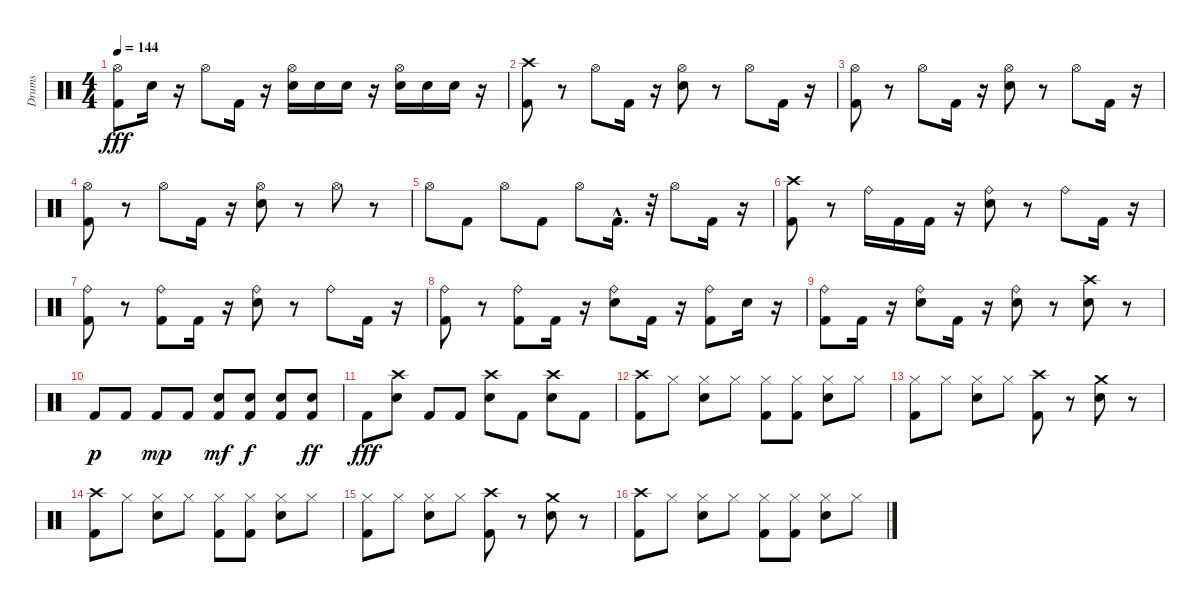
\track ("Drums" "Drums") {instrument percussion}
\staff {score}
\articulation defaults
\ts (4 4)
\tempo 144
\clef neutral
\ks c
("Hi-Hat (open)" "Kick (hit) 2").8{dy fff} "Snare (hit) 2".16 r.16 "Hi-Hat (open)".8 "Kick (hit) 2".16 r.16 ("Hi-Hat (open)" "Snare (hit) 2").16 "Snare (hit) 2".16 "Snare (hit) 2".16 r.16 ("Hi-Hat (open)" "Snare (hit) 2").16 "Snare (hit) 2".16 "Snare (hit) 2".16 r.16 |
("Crash high (hit)" "Kick (hit) 2").8 r.8 "Hi-Hat (open)".8 "Kick (hit) 2".16 r.16 ("Snare (hit) 2" "Hi-Hat (open)").8 r.8 "Hi-Hat (open)".8 "Kick (hit) 2".16 r.16 |
("Kick (hit) 2" "Hi-Hat (open)").8 r.8 "Hi-Hat (open)".8 "Kick (hit) 2".16 r.16 ("Snare (hit) 2" "Hi-Hat (open)").8 r.8 "Hi-Hat (open)".8 "Kick (hit) 2".16 r.16 |
("Kick (hit) 2" "Hi-Hat (open)").8 r.8 "Hi-Hat (open)".8 "Kick (hit) 2".16 r.16 ("Snare (hit) 2" "Hi-Hat (open)").8 r.8 "Hi-Hat (open)".8 r.8 |
"Hi-Hat (open)".8 "Kick (hit) 2".8 "Hi-Hat (open)".8 "Kick (hit) 2".8 "Hi-Hat (open)".8 "Kick (hit) 2"{hac}.16{d} r.32 "Hi-Hat (open)".8 "Kick (hit) 2".16 r.16 |
("Kick (hit) 2" "Crash high (hit)").8 r.8 "Ride (bell)".16 "Kick (hit) 2".16 "Kick (hit) 2".16 r.16 ("Snare (hit) 2" "Ride (bell)").8 r.8 "Ride (bell)".8 "Kick (hit) 2".16 r.16 |
("Kick (hit) 2" "Ride (bell)").8 r.8 ("Ride (bell)" "Kick (hit) 2").8 "Kick (hit) 2".16 r.16 ("Snare (hit) 2" "Ride (bell)").8 r.8 "Ride (bell)".8 "Kick (hit) 2".16 r.16 |
("Kick (hit) 2" "Ride (bell)").8 r.8 ("Ride (bell)" "Kick (hit) 2").8 "Kick (hit) 2".16 r.16 ("Snare (hit) 2" "Ride (bell)").8 "Kick (hit) 2".16 r.16 ("Ride (bell)" "Kick (hit) 2").8 "Snare (hit) 2".16 r.16 |
("Ride (bell)" "Kick (hit) 2").8 "Kick (hit) 2".16 r.16 ("Ride (bell)" "Snare (hit) 2").8 "Kick (hit) 2".16 r.16 ("Ride (bell)" "Snare (hit) 2").8 r.8 ("Snare (hit) 2" "Crash high (hit)").8 r.8 |
"Kick (hit) 2".8{dy p} "Kick (hit) 2".8 "Kick (hit) 2".8{dy mp} "Kick (hit) 2".8 ("Kick (hit) 2" "Snare (hit) 2").8{dy mf} ("Kick (hit) 2" "Snare (hit) 2").8{dy f} ("Kick (hit) 2" "Snare (hit) 2").8 ("Kick (hit) 2" "Snare (hit) 2").8{dy ff} |
"Kick (hit) 2".8{dy fff} ("Snare (hit) 2" "Crash high (hit)").8 "Kick (hit) 2".8 "Kick (hit) 2".8 ("Snare (hit) 2" "Crash high (hit)").8 "Kick (hit) 2".8 ("Snare (hit) 2" "Crash high (hit)").8 "Kick (hit) 2".8 |
("Crash high (hit)" "Kick (hit) 2").8 "Hi-Hat (closed)".8 ("Hi-Hat (closed)" "Snare (hit) 2").8 "Hi-Hat (closed)".8 ("Hi-Hat (closed)" "Kick (hit) 2").8 ("Hi-Hat (closed)" "Kick (hit) 2").8 ("Hi-Hat (closed)" "Snare (hit) 2").8 "Hi-Hat (closed)".8 |
("Hi-Hat (closed)" "Kick (hit) 2").8 "Hi-Hat (closed)".8 ("Hi-Hat (closed)" "Snare (hit) 2").8 "Hi-Hat (closed)".8 ("Crash high (hit)" "Kick (hit) 2").8 r.8 ("Snare (hit) 2" "Crash medium (hit)").8 r.8 |
("Kick (hit) 2" "Crash high (hit)").8 "Hi-Hat (closed)".8 ("Hi-Hat (closed)" "Snare (hit) 2").8 "Hi-Hat (closed)".8 ("Hi-Hat (closed)" "Kick (hit) 2").8 ("Hi-Hat (closed)" "Kick (hit) 2").8 ("Hi-Hat (closed)" "Snare (hit) 2").8 "Hi-Hat (closed)".8 |
("Hi-Hat (closed)" "Kick (hit) 2").8 "Hi-Hat (closed)".8 ("Hi-Hat (closed)" "Snare (hit) 2").8 "Hi-Hat (closed)".8 ("Crash high (hit)" "Kick (hit) 2").8 r.8 ("Snare (hit) 2" "Crash medium (hit)").8 r.8 |
("Kick (hit) 2" "Crash high (hit)").8 "Hi-Hat (closed)".8 ("Hi-Hat (closed)" "Snare (hit) 2").8 "Hi-Hat (closed)".8 ("Hi-Hat (closed)" "Kick (hit) 2").8 ("Hi-Hat (closed)" "Kick (hit) 2").8 ("Hi-Hat (closed)" "Snare (hit) 2").8 "Hi-Hat (closed)".8
